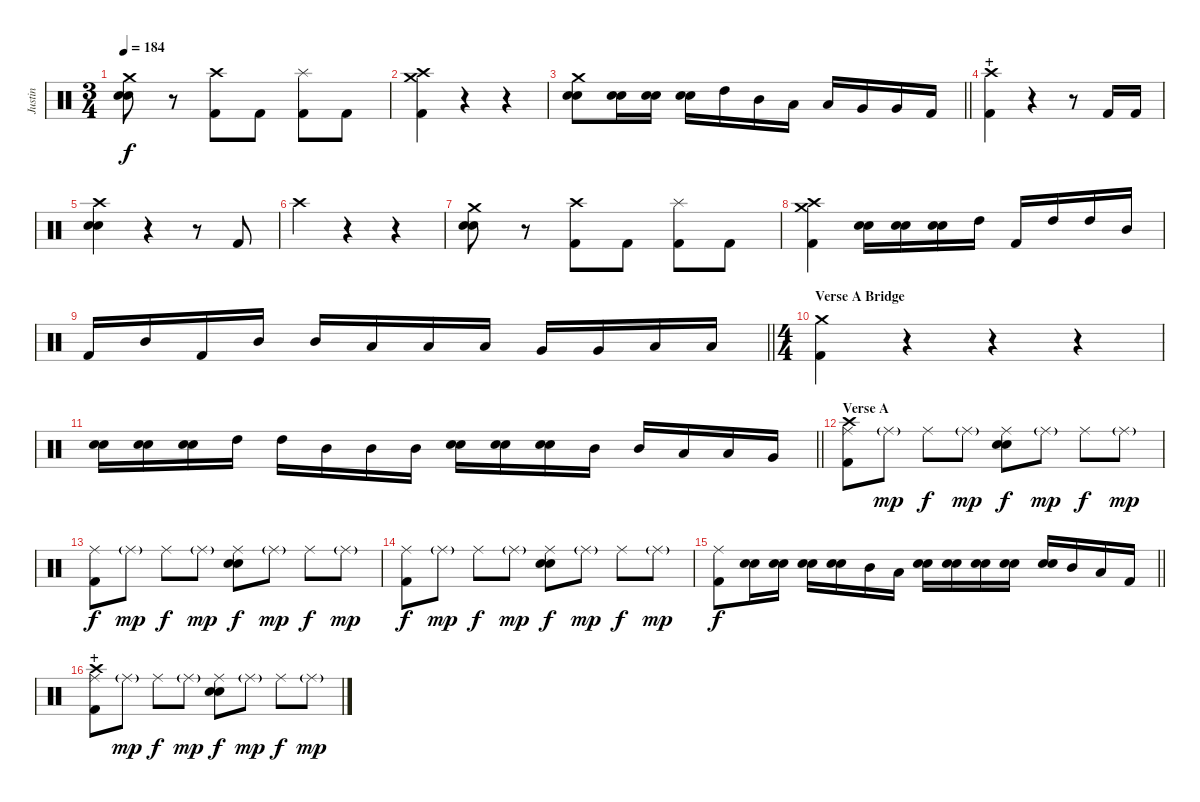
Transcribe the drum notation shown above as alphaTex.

\track ("Justin" "Justin") {instrument percussion}
\staff {score}
\articulation defaults
\ts (3 4)
\tempo 184
\clef neutral
\ks c
("Crash medium (hit)" "Electric Snare (hit)" "Snare (hit) 2").8{dy f} r.8 ("Crash high (hit)" "Kick (hit) 2").8 "Kick (hit) 2".8 ("Splash (hit)" "Kick (hit) 2").8 "Kick (hit) 2".8 |
("Crash medium (hit)" "Crash high (hit)" "Kick (hit) 2").4 r.4 r.4 |
\barLineRight lightlight
("Crash medium (hit)" "Electric Snare (hit)" "Snare (hit) 2").8 ("Electric Snare (hit)" "Snare (hit) 2").16 ("Electric Snare (hit)" "Snare (hit) 2").16 ("Electric Snare (hit)" "Snare (hit) 2").16 "High Tom (hit)".16 "Mid Tom (hit)".16 "Low Tom (hit)".16 "Low Tom (hit)".16 "Very Low Tom (hit)".16 "Very Low Tom (hit)".16 "Kick (hit) 2".16 |
\section ("" "+")
("Crash high (hit)" "Kick (hit) 2").4 r.4 r.8 "Kick (hit) 2".16 "Kick (hit) 2".16 |
("Crash high (hit)" "Electric Snare (hit)" "Snare (hit) 2").4 r.4 r.8 "Kick (hit) 2".8 |
"Crash high (hit)".4 r.4 r.4 |
("Crash medium (hit)" "Electric Snare (hit)" "Snare (hit) 2").8 r.8 ("Crash high (hit)" "Kick (hit) 2").8 "Kick (hit) 2".8 ("Splash (hit)" "Kick (hit) 2").8 "Kick (hit) 2".8 |
("Crash medium (hit)" "Crash high (hit)" "Kick (hit) 2").4 ("Electric Snare (hit)" "Snare (hit) 2").16 ("Electric Snare (hit)" "Snare (hit) 2").16 ("Electric Snare (hit)" "Snare (hit) 2").16 "High Tom (hit)".16 "Kick (hit) 2".16 "High Tom (hit)".16 "High Tom (hit)".16 "Mid Tom (hit)".16 |
\barLineRight lightlight "Kick (hit) 2".16 "Mid Tom (hit)".16 "Kick (hit) 2".16 "Mid Tom (hit)".16 "Mid Tom (hit)".16 "Low Tom (hit)".16 "Low Tom (hit)".16 "Low Tom (hit)".16 "Very Low Tom (hit)".16 "Very Low Tom (hit)".16 "Low Floor Tom (hit)".16 "Low Floor Tom (hit)".16
|
\ts (4 4)
\section ("" "Verse A Bridge")
("Crash medium (hit)" "Kick (hit) 2").4 r.4{volume 0} r.4 r.4 |
\barLineRight lightlight
("Electric Snare (hit)" "Snare (hit) 2").16{volume 16} ("Electric Snare (hit)" "Snare (hit) 2").16 ("Electric Snare (hit)" "Snare (hit) 2").16 "High Tom (hit)".16 "High Tom (hit)".16 "Mid Tom (hit)".16 "Mid Tom (hit)".16 "Mid Tom (hit)".16 ("Electric Snare (hit)" "Snare (hit) 2").16 ("Electric Snare (hit)" "Snare (hit) 2").16 ("Electric Snare (hit)" "Snare (hit) 2").16 "Mid Tom (hit)".16 "Mid Tom (hit)".16 "Low Tom (hit)".16 "Low Tom (hit)".16 "Very Low Tom (hit)".16 |
\section ("" "Verse A")
("Crash high (hit)" "Ride (middle)" "Kick (hit) 2").8 "Ride (middle)"{g}.8{dy mp} "Ride (middle)".8{dy f} "Ride (middle)"{g}.8{dy mp} ("Ride (middle)" "Electric Snare (hit)" "Snare (hit) 2").8{dy f} "Ride (middle)"{g}.8{dy mp} "Ride (middle)".8{dy f} "Ride (middle)"{g}.8{dy mp} |
("Ride (middle)" "Kick (hit) 2").8{dy f} "Ride (middle)"{g}.8{dy mp} "Ride (middle)".8{dy f} "Ride (middle)"{g}.8{dy mp} ("Ride (middle)" "Electric Snare (hit)" "Snare (hit) 2").8{dy f} "Ride (middle)"{g}.8{dy mp} "Ride (middle)".8{dy f} "Ride (middle)"{g}.8{dy mp} |
("Ride (middle)" "Kick (hit) 2").8{dy f} "Ride (middle)"{g}.8{dy mp} "Ride (middle)".8{dy f} "Ride (middle)"{g}.8{dy mp} ("Ride (middle)" "Electric Snare (hit)" "Snare (hit) 2").8{dy f} "Ride (middle)"{g}.8{dy mp} "Ride (middle)".8{dy f} "Ride (middle)"{g}.8{dy mp} |
\barLineRight lightlight
("Ride (middle)" "Kick (hit) 2").8{dy f} ("Electric Snare (hit)" "Snare (hit) 2").16 ("Electric Snare (hit)" "Snare (hit) 2").16 ("Electric Snare (hit)" "Snare (hit) 2").16 ("Electric Snare (hit)" "Snare (hit) 2").16 "Mid Tom (hit)".16 "Low Tom (hit)".16 ("Electric Snare (hit)" "Snare (hit) 2").16 ("Electric Snare (hit)" "Snare (hit) 2").16 ("Electric Snare (hit)" "Snare (hit) 2").16 ("Electric Snare (hit)" "Snare (hit) 2").16 ("Electric Snare (hit)" "Snare (hit) 2").16 "Mid Tom (hit)".16 "Low Tom (hit)".16 "Kick (hit) 2".16 |
\section ("" "+")
("Crash high (hit)" "Ride (middle)" "Kick (hit) 2").8 "Ride (middle)"{g}.8{dy mp} "Ride (middle)".8{dy f} "Ride (middle)"{g}.8{dy mp} ("Ride (middle)" "Electric Snare (hit)" "Snare (hit) 2").8{dy f} "Ride (middle)"{g}.8{dy mp} "Ride (middle)".8{dy f} "Ride (middle)"{g}.8{dy mp}
